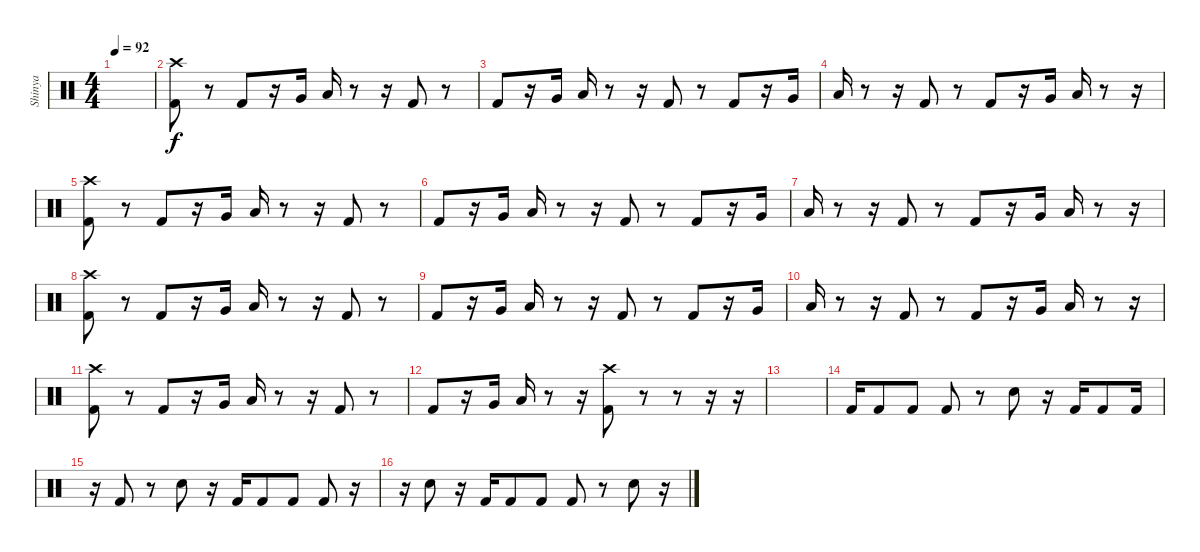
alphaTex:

\track ("Shinya" "Shinya") {instrument percussion}
\staff {score}
\articulation defaults
\ts (4 4)
\tempo 92
\clef neutral
\ks c
|
("Crash high (hit)" "Kick (hit) 2").8 r.8 "Kick (hit) 2".8 r.16 "Very Low Tom (hit)".16 "Low Floor Tom (hit)".16 r.8 r.16 "Kick (hit) 2".8 r.8 |
"Kick (hit) 2".8 r.16 "Very Low Tom (hit)".16 "Low Floor Tom (hit)".16 r.8 r.16 "Kick (hit) 2".8 r.8 "Kick (hit) 2".8 r.16 "Very Low Tom (hit)".16 |
"Low Floor Tom (hit)".16 r.8 r.16 "Kick (hit) 2".8 r.8 "Kick (hit) 2".8 r.16 "Very Low Tom (hit)".16 "Low Floor Tom (hit)".16 r.8 r.16 |
("Crash high (hit)" "Kick (hit) 2").8 r.8 "Kick (hit) 2".8 r.16 "Very Low Tom (hit)".16 "Low Floor Tom (hit)".16 r.8 r.16 "Kick (hit) 2".8 r.8 |
"Kick (hit) 2".8 r.16 "Very Low Tom (hit)".16 "Low Floor Tom (hit)".16 r.8 r.16 "Kick (hit) 2".8 r.8 "Kick (hit) 2".8 r.16 "Very Low Tom (hit)".16 |
"Low Floor Tom (hit)".16 r.8 r.16 "Kick (hit) 2".8 r.8 "Kick (hit) 2".8 r.16 "Very Low Tom (hit)".16 "Low Floor Tom (hit)".16 r.8 r.16 |
("Crash high (hit)" "Kick (hit) 2").8 r.8 "Kick (hit) 2".8 r.16 "Very Low Tom (hit)".16 "Low Floor Tom (hit)".16 r.8 r.16 "Kick (hit) 2".8 r.8 |
"Kick (hit) 2".8 r.16 "Very Low Tom (hit)".16 "Low Floor Tom (hit)".16 r.8 r.16 "Kick (hit) 2".8 r.8 "Kick (hit) 2".8 r.16 "Very Low Tom (hit)".16 |
"Low Floor Tom (hit)".16 r.8 r.16 "Kick (hit) 2".8 r.8 "Kick (hit) 2".8 r.16 "Very Low Tom (hit)".16 "Low Floor Tom (hit)".16 r.8 r.16 |
("Crash high (hit)" "Kick (hit) 2").8 r.8 "Kick (hit) 2".8 r.16 "Very Low Tom (hit)".16 "Low Floor Tom (hit)".16 r.8 r.16 "Kick (hit) 2".8 r.8 |
"Kick (hit) 2".8 r.16 "Very Low Tom (hit)".16 "Low Floor Tom (hit)".16 r.8 r.16 ("Crash high (hit)" "Kick (hit) 2").8 r.8 r.8 r.16 r.16 |
|
"Kick (hit) 2".16 "Kick (hit) 2".8 "Kick (hit) 2".8 "Kick (hit) 2".8 r.8 "Snare (hit) 2".8 r.16 "Kick (hit) 2".16 "Kick (hit) 2".8 "Kick (hit) 2".16 |
r.16 "Kick (hit) 2".8 r.8 "Snare (hit) 2".8 r.16 "Kick (hit) 2".16 "Kick (hit) 2".8 "Kick (hit) 2".8 "Kick (hit) 2".8 r.16 |
r.16 "Snare (hit) 2".8 r.16 "Kick (hit) 2".16 "Kick (hit) 2".8 "Kick (hit) 2".8 "Kick (hit) 2".8 r.8 "Snare (hit) 2".8 r.16
